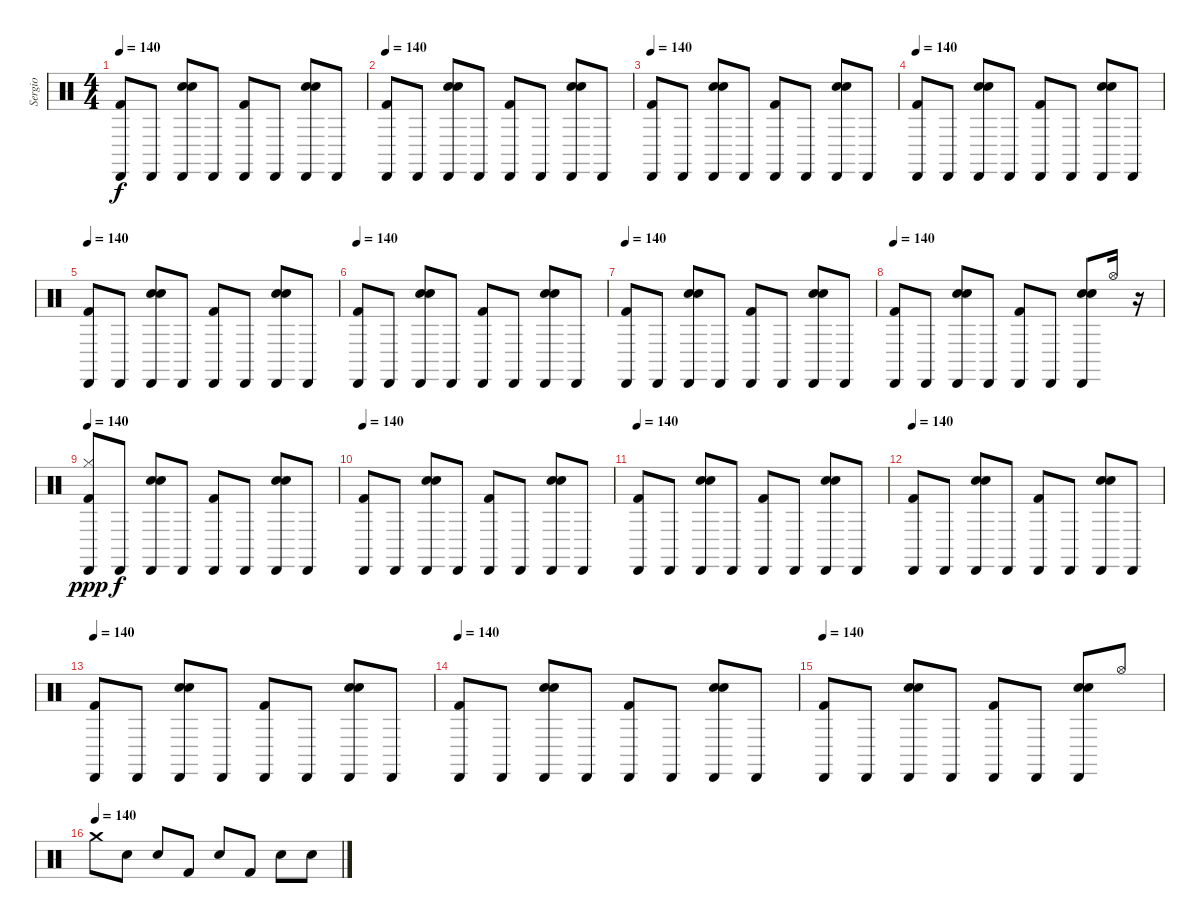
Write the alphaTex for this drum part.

\track ("Sergio" "Sergio") {instrument percussion}
\staff {score}
\articulation defaults
\ts (4 4)
\tempo 140
\clef neutral
\ks c
("Kick (hit) 2" "Cabasa (hit)").8{dy f} "Cabasa (hit)".8 ("Snare (hit) 2" "Cabasa (hit)" "Snare (hit) 2").8 "Cabasa (hit)".8 ("Kick (hit) 2" "Cabasa (hit)").8 "Cabasa (hit)".8 ("Snare (hit) 2" "Cabasa (hit)" "Snare (hit) 2").8 "Cabasa (hit)".8 |
\tempo 140
("Kick (hit) 2" "Cabasa (hit)").8 "Cabasa (hit)".8 ("Snare (hit) 2" "Cabasa (hit)" "Snare (hit) 2").8 "Cabasa (hit)".8 ("Kick (hit) 2" "Cabasa (hit)").8 "Cabasa (hit)".8 ("Snare (hit) 2" "Cabasa (hit)" "Snare (hit) 2").8 "Cabasa (hit)".8 |
\tempo 140
("Kick (hit) 2" "Cabasa (hit)").8 "Cabasa (hit)".8 ("Snare (hit) 2" "Cabasa (hit)" "Snare (hit) 2").8 "Cabasa (hit)".8 ("Kick (hit) 2" "Cabasa (hit)").8 "Cabasa (hit)".8 ("Snare (hit) 2" "Cabasa (hit)" "Snare (hit) 2").8 "Cabasa (hit)".8 |
\tempo 140
("Kick (hit) 2" "Cabasa (hit)").8 "Cabasa (hit)".8 ("Snare (hit) 2" "Cabasa (hit)" "Snare (hit) 2").8 "Cabasa (hit)".8 ("Kick (hit) 2" "Cabasa (hit)").8 "Cabasa (hit)".8 ("Snare (hit) 2" "Cabasa (hit)" "Snare (hit) 2").8 "Cabasa (hit)".8 |
\tempo 140
("Kick (hit) 2" "Cabasa (hit)").8 "Cabasa (hit)".8 ("Snare (hit) 2" "Cabasa (hit)" "Snare (hit) 2").8 "Cabasa (hit)".8 ("Kick (hit) 2" "Cabasa (hit)").8 "Cabasa (hit)".8 ("Snare (hit) 2" "Cabasa (hit)" "Snare (hit) 2").8 "Cabasa (hit)".8 |
\tempo 140
("Kick (hit) 2" "Cabasa (hit)").8 "Cabasa (hit)".8 ("Snare (hit) 2" "Cabasa (hit)" "Snare (hit) 2").8 "Cabasa (hit)".8 ("Kick (hit) 2" "Cabasa (hit)").8 "Cabasa (hit)".8 ("Snare (hit) 2" "Cabasa (hit)" "Snare (hit) 2").8 "Cabasa (hit)".8 |
\tempo 140
("Kick (hit) 2" "Cabasa (hit)").8 "Cabasa (hit)".8 ("Snare (hit) 2" "Cabasa (hit)" "Snare (hit) 2").8 "Cabasa (hit)".8 ("Kick (hit) 2" "Cabasa (hit)").8 "Cabasa (hit)".8 ("Snare (hit) 2" "Cabasa (hit)" "Snare (hit) 2").8 "Cabasa (hit)".8 |
\tempo 140
("Kick (hit) 2" "Cabasa (hit)").8 "Cabasa (hit)".8 ("Snare (hit) 2" "Cabasa (hit)" "Snare (hit) 2").8 "Cabasa (hit)".8 ("Kick (hit) 2" "Cabasa (hit)").8 "Cabasa (hit)".8 ("Snare (hit) 2" "Cabasa (hit)" "Snare (hit) 2").8 "Hi-Hat (open)".16 r.16 |
\tempo 140
("Kick (hit) 2" "Cabasa (hit)" "Hi-Hat (closed)").8{dy ppp} "Cabasa (hit)".8{dy f} ("Snare (hit) 2" "Cabasa (hit)" "Snare (hit) 2").8 "Cabasa (hit)".8 ("Kick (hit) 2" "Cabasa (hit)").8 "Cabasa (hit)".8 ("Snare (hit) 2" "Cabasa (hit)" "Snare (hit) 2").8 "Cabasa (hit)".8 |
\tempo 140
("Kick (hit) 2" "Cabasa (hit)").8 "Cabasa (hit)".8 ("Snare (hit) 2" "Cabasa (hit)" "Snare (hit) 2").8 "Cabasa (hit)".8 ("Kick (hit) 2" "Cabasa (hit)").8 "Cabasa (hit)".8 ("Snare (hit) 2" "Cabasa (hit)" "Snare (hit) 2").8 "Cabasa (hit)".8 |
\tempo 140
("Kick (hit) 2" "Cabasa (hit)").8 "Cabasa (hit)".8 ("Snare (hit) 2" "Cabasa (hit)" "Snare (hit) 2").8 "Cabasa (hit)".8 ("Kick (hit) 2" "Cabasa (hit)").8 "Cabasa (hit)".8 ("Snare (hit) 2" "Cabasa (hit)" "Snare (hit) 2").8 "Cabasa (hit)".8 |
\tempo 140
("Kick (hit) 2" "Cabasa (hit)").8 "Cabasa (hit)".8 ("Snare (hit) 2" "Cabasa (hit)" "Snare (hit) 2").8 "Cabasa (hit)".8 ("Kick (hit) 2" "Cabasa (hit)").8 "Cabasa (hit)".8 ("Snare (hit) 2" "Cabasa (hit)" "Snare (hit) 2").8 "Cabasa (hit)".8 |
\tempo 140
("Kick (hit) 2" "Cabasa (hit)").8 "Cabasa (hit)".8 ("Snare (hit) 2" "Cabasa (hit)" "Snare (hit) 2").8 "Cabasa (hit)".8 ("Kick (hit) 2" "Cabasa (hit)").8 "Cabasa (hit)".8 ("Snare (hit) 2" "Cabasa (hit)" "Snare (hit) 2").8 "Cabasa (hit)".8 |
\tempo 140
("Kick (hit) 2" "Cabasa (hit)").8 "Cabasa (hit)".8 ("Snare (hit) 2" "Cabasa (hit)" "Snare (hit) 2").8 "Cabasa (hit)".8 ("Kick (hit) 2" "Cabasa (hit)").8 "Cabasa (hit)".8 ("Snare (hit) 2" "Cabasa (hit)" "Snare (hit) 2").8 "Cabasa (hit)".8 |
\tempo 140
("Kick (hit) 2" "Cabasa (hit)").8 "Cabasa (hit)".8 ("Snare (hit) 2" "Cabasa (hit)" "Snare (hit) 2").8 "Cabasa (hit)".8 ("Kick (hit) 2" "Cabasa (hit)").8 "Cabasa (hit)".8 ("Snare (hit) 2" "Cabasa (hit)" "Snare (hit) 2").8 "Hi-Hat (open)".8 |
\tempo (140)
"Crash medium (hit)".8 "Snare (hit) 2".8 "Snare (hit) 2".8 "Kick (hit) 2".8 "Snare (hit) 2".8 "Kick (hit) 2".8 "Snare (hit) 2".8 "Snare (hit) 2".8
